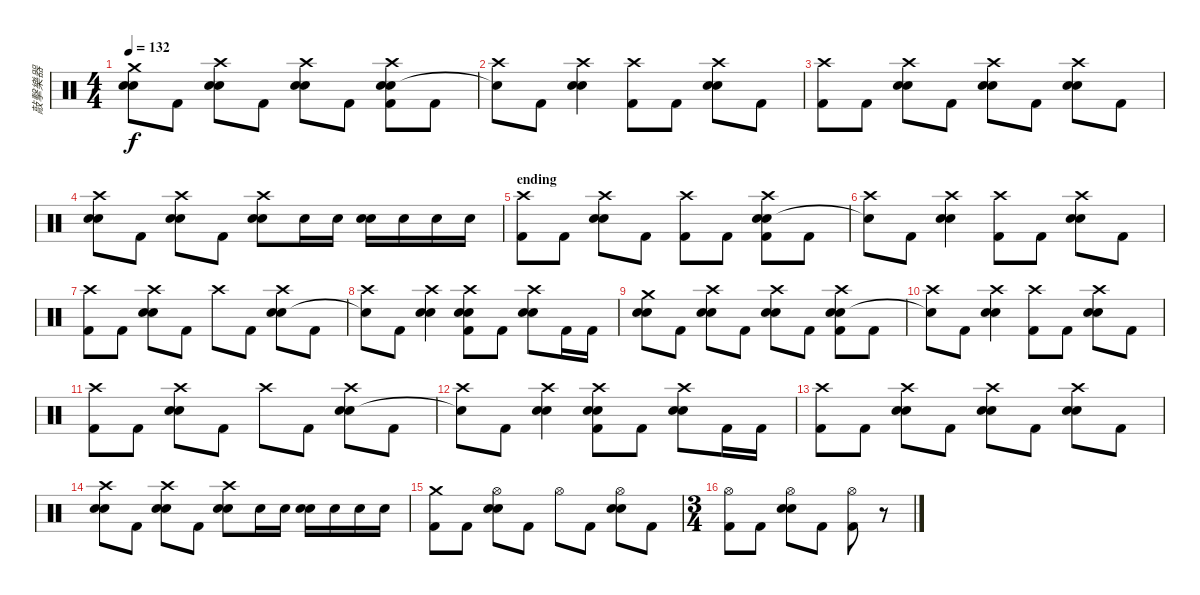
\track ("敲擊樂器" "敲擊樂器") {instrument percussion}
\staff {score}
\articulation defaults
\ts (4 4)
\tempo 132
\clef neutral
\ks c
("Crash medium (hit)" "Electric Snare (hit)" "Snare (hit) 2").8{dy f} "Kick (hit) 2".8 ("Crash high (hit)" "Electric Snare (hit)" "Snare (hit) 2").8 "Kick (hit) 2".8 ("Crash high (hit)" "Electric Snare (hit)" "Snare (hit) 2").8 "Kick (hit) 2".8 ("Crash high (hit)" "Electric Snare (hit)" "Snare (hit) 2" "Kick (hit) 2").8 "Kick (hit) 2".8 |
("Crash high (hit)" "Snare (hit)"{t}).8 "Kick (hit) 2".8 ("Crash high (hit)" "Electric Snare (hit)" "Snare (hit) 2").4 ("Crash high (hit)" "Kick (hit) 2").8 "Kick (hit) 2".8 ("Crash high (hit)" "Electric Snare (hit)" "Snare (hit) 2").8 "Kick (hit) 2".8 |
("Crash high (hit)" "Kick (hit) 2").8 "Kick (hit) 2".8 ("Crash high (hit)" "Electric Snare (hit)" "Snare (hit) 2").8 "Kick (hit) 2".8 ("Crash high (hit)" "Electric Snare (hit)" "Snare (hit) 2").8 "Kick (hit) 2".8 ("Crash high (hit)" "Electric Snare (hit)" "Snare (hit) 2").8 "Kick (hit) 2".8 |
("Crash high (hit)" "Electric Snare (hit)" "Snare (hit) 2").8 "Kick (hit) 2".8 ("Crash high (hit)" "Electric Snare (hit)" "Snare (hit) 2").8 "Kick (hit) 2".8 ("Crash high (hit)" "Electric Snare (hit)" "Snare (hit) 2").8 "Snare (hit) 2".16 "Snare (hit) 2".16 ("Electric Snare (hit)" "Snare (hit) 2").16 "Snare (hit) 2".16 "Snare (hit) 2".16 "Snare (hit) 2".16 |
\section ("" "ending")
("Crash high (hit)" "Kick (hit) 2").8 "Kick (hit) 2".8 ("Crash high (hit)" "Electric Snare (hit)" "Snare (hit) 2").8 "Kick (hit) 2".8 ("Crash high (hit)" "Kick (hit) 2").8 "Kick (hit) 2".8 ("Crash high (hit)" "Electric Snare (hit)" "Snare (hit) 2" "Kick (hit) 2").8 "Kick (hit) 2".8 |
("Crash high (hit)" "Snare (hit)"{t}).8 "Kick (hit) 2".8 ("Crash high (hit)" "Electric Snare (hit)" "Snare (hit) 2").4 ("Crash high (hit)" "Kick (hit) 2").8 "Kick (hit) 2".8 ("Crash high (hit)" "Electric Snare (hit)" "Snare (hit) 2").8 "Kick (hit) 2".8 |
("Crash high (hit)" "Kick (hit) 2").8 "Kick (hit) 2".8 ("Crash high (hit)" "Electric Snare (hit)" "Snare (hit) 2").8 "Kick (hit) 2".8 "Crash high (hit)".8 "Kick (hit) 2".8 ("Crash high (hit)" "Electric Snare (hit)" "Snare (hit) 2").8 "Kick (hit) 2".8 |
("Crash high (hit)" "Snare (hit)"{t}).8 "Kick (hit) 2".8 ("Crash high (hit)" "Electric Snare (hit)" "Snare (hit) 2").4 ("Crash high (hit)" "Electric Snare (hit)" "Snare (hit) 2" "Kick (hit) 2").8 "Kick (hit) 2".8 ("Crash high (hit)" "Electric Snare (hit)" "Snare (hit) 2").8 "Kick (hit) 2".16 "Kick (hit) 2".16 |
("Crash medium (hit)" "Electric Snare (hit)" "Snare (hit) 2").8 "Kick (hit) 2".8 ("Crash high (hit)" "Electric Snare (hit)" "Snare (hit) 2").8 "Kick (hit) 2".8 ("Crash high (hit)" "Electric Snare (hit)" "Snare (hit) 2").8 "Kick (hit) 2".8 ("Crash high (hit)" "Electric Snare (hit)" "Snare (hit) 2" "Kick (hit) 2").8 "Kick (hit) 2".8 |
("Crash high (hit)" "Snare (hit)"{t}).8 "Kick (hit) 2".8 ("Crash high (hit)" "Electric Snare (hit)" "Snare (hit) 2").4 ("Crash high (hit)" "Kick (hit) 2").8 "Kick (hit) 2".8 ("Crash high (hit)" "Electric Snare (hit)" "Snare (hit) 2").8 "Kick (hit) 2".8 |
("Crash high (hit)" "Kick (hit) 2").8 "Kick (hit) 2".8 ("Crash high (hit)" "Electric Snare (hit)" "Snare (hit) 2").8 "Kick (hit) 2".8 "Crash high (hit)".8 "Kick (hit) 2".8 ("Crash high (hit)" "Electric Snare (hit)" "Snare (hit) 2").8 "Kick (hit) 2".8 |
("Crash high (hit)" "Snare (hit)"{t}).8 "Kick (hit) 2".8 ("Crash high (hit)" "Electric Snare (hit)" "Snare (hit) 2").4 ("Crash high (hit)" "Electric Snare (hit)" "Snare (hit) 2" "Kick (hit) 2").8 "Kick (hit) 2".8 ("Crash high (hit)" "Electric Snare (hit)" "Snare (hit) 2").8 "Kick (hit) 2".16 "Kick (hit) 2".16 |
("Crash high (hit)" "Kick (hit) 2").8 "Kick (hit) 2".8 ("Crash high (hit)" "Electric Snare (hit)" "Snare (hit) 2").8 "Kick (hit) 2".8 ("Crash high (hit)" "Electric Snare (hit)" "Snare (hit) 2").8 "Kick (hit) 2".8 ("Crash high (hit)" "Electric Snare (hit)" "Snare (hit) 2").8 "Kick (hit) 2".8 |
("Crash high (hit)" "Electric Snare (hit)" "Snare (hit) 2").8 "Kick (hit) 2".8 ("Crash high (hit)" "Electric Snare (hit)" "Snare (hit) 2").8 "Kick (hit) 2".8 ("Crash high (hit)" "Electric Snare (hit)" "Snare (hit) 2").8 "Snare (hit) 2".16 "Snare (hit) 2".16 ("Electric Snare (hit)" "Snare (hit) 2").16 "Snare (hit) 2".16 "Snare (hit) 2".16 "Snare (hit) 2".16 |
("Crash medium (hit)" "Kick (hit) 2").8 "Kick (hit) 2".8 ("Hi-Hat (open)" "Electric Snare (hit)" "Snare (hit) 2").8 "Kick (hit) 2".8 "Hi-Hat (open)".8 "Kick (hit) 2".8 ("Hi-Hat (open)" "Electric Snare (hit)" "Snare (hit) 2").8 "Kick (hit) 2".8 |
\ts (3 4)
("Hi-Hat (open)" "Kick (hit) 2").8 "Kick (hit) 2".8 ("Hi-Hat (open)" "Electric Snare (hit)" "Snare (hit) 2").8 "Kick (hit) 2".8 ("Hi-Hat (open)" "Kick (hit) 2").8 r.8
